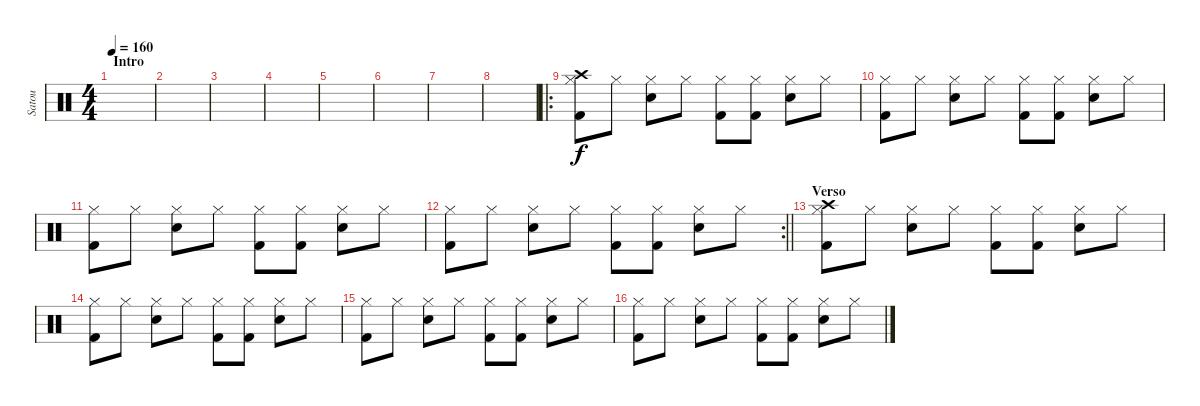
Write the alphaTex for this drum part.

\track ("Satou" "Satou") {instrument percussion}
\staff {score}
\articulation defaults
\ts (4 4)
\section ("" "Intro")
\tempo 160
\clef neutral
\ks c
|
|
|
|
|
|
|
|
\ro
("Hi-Hat (closed)" "Kick (hit) 2" "Crash high (hit)").8 "Hi-Hat (closed)".8 ("Hi-Hat (closed)" "Snare (hit) 2").8 "Hi-Hat (closed)".8 ("Hi-Hat (closed)" "Kick (hit) 2").8 ("Hi-Hat (closed)" "Kick (hit) 2").8 ("Hi-Hat (closed)" "Snare (hit) 2").8 "Hi-Hat (closed)".8 |
("Hi-Hat (closed)" "Kick (hit) 2").8 "Hi-Hat (closed)".8 ("Hi-Hat (closed)" "Snare (hit) 2").8 "Hi-Hat (closed)".8 ("Hi-Hat (closed)" "Kick (hit) 2").8 ("Hi-Hat (closed)" "Kick (hit) 2").8 ("Hi-Hat (closed)" "Snare (hit) 2").8 "Hi-Hat (closed)".8 |
("Hi-Hat (closed)" "Kick (hit) 2").8 "Hi-Hat (closed)".8 ("Hi-Hat (closed)" "Snare (hit) 2").8 "Hi-Hat (closed)".8 ("Hi-Hat (closed)" "Kick (hit) 2").8 ("Hi-Hat (closed)" "Kick (hit) 2").8 ("Hi-Hat (closed)" "Snare (hit) 2").8 "Hi-Hat (closed)".8 |
\rc 2
\barLineRight lightlight
("Hi-Hat (closed)" "Kick (hit) 2").8 "Hi-Hat (closed)".8 ("Hi-Hat (closed)" "Snare (hit) 2").8 "Hi-Hat (closed)".8 ("Hi-Hat (closed)" "Kick (hit) 2").8 ("Hi-Hat (closed)" "Kick (hit) 2").8 ("Hi-Hat (closed)" "Snare (hit) 2").8 "Hi-Hat (closed)".8 |
\section ("" "Verso")
("Hi-Hat (closed)" "Kick (hit) 2" "Crash high (hit)").8 "Hi-Hat (closed)".8 ("Hi-Hat (closed)" "Snare (hit) 2").8 "Hi-Hat (closed)".8 ("Hi-Hat (closed)" "Kick (hit) 2").8 ("Hi-Hat (closed)" "Kick (hit) 2").8 ("Hi-Hat (closed)" "Snare (hit) 2").8 "Hi-Hat (closed)".8 |
("Hi-Hat (closed)" "Kick (hit) 2").8 "Hi-Hat (closed)".8 ("Hi-Hat (closed)" "Snare (hit) 2").8 "Hi-Hat (closed)".8 ("Hi-Hat (closed)" "Kick (hit) 2").8 ("Hi-Hat (closed)" "Kick (hit) 2").8 ("Hi-Hat (closed)" "Snare (hit) 2").8 "Hi-Hat (closed)".8 |
("Hi-Hat (closed)" "Kick (hit) 2").8 "Hi-Hat (closed)".8 ("Hi-Hat (closed)" "Snare (hit) 2").8 "Hi-Hat (closed)".8 ("Hi-Hat (closed)" "Kick (hit) 2").8 ("Hi-Hat (closed)" "Kick (hit) 2").8 ("Hi-Hat (closed)" "Snare (hit) 2").8 "Hi-Hat (closed)".8 |
("Hi-Hat (closed)" "Kick (hit) 2").8 "Hi-Hat (closed)".8 ("Hi-Hat (closed)" "Snare (hit) 2").8 "Hi-Hat (closed)".8 ("Hi-Hat (closed)" "Kick (hit) 2").8 ("Hi-Hat (closed)" "Kick (hit) 2").8 ("Hi-Hat (closed)" "Snare (hit) 2").8 "Hi-Hat (closed)".8
